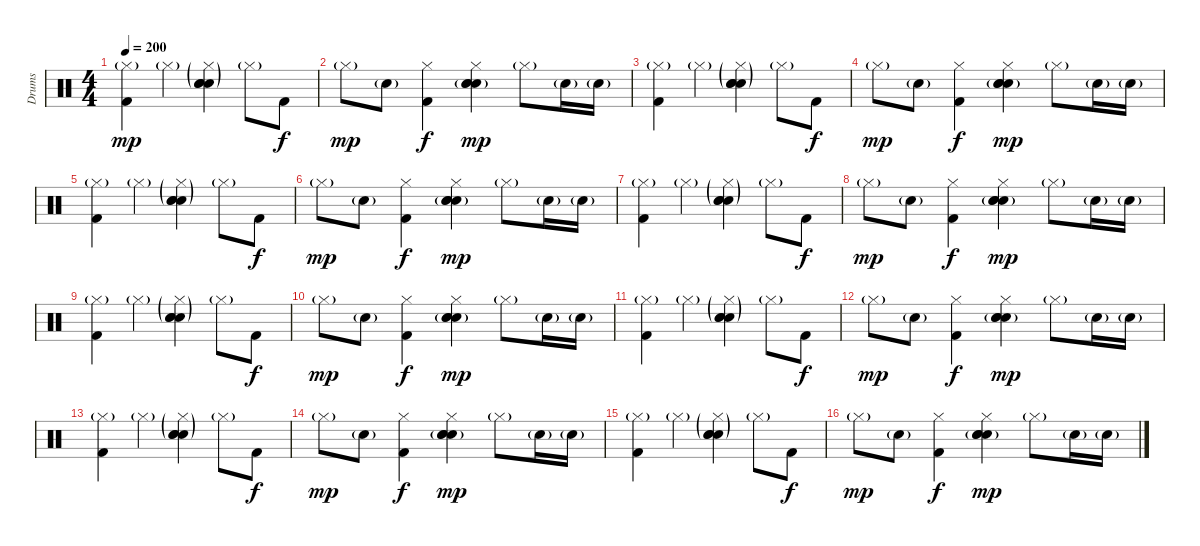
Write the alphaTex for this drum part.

\track ("Drums" "Drums") {instrument percussion}
\staff {score}
\articulation defaults
\ts (4 4)
\tempo 200
\clef neutral
\ks c
("Hi-Hat (closed)"{g} "Kick (hit) 2").4{dy mp} "Hi-Hat (closed)"{g}.4 ("Hi-Hat (closed)"{g} "Snare (hit) 2"{g} "Hand Clap (hit)"{g} "Electric Snare (hit)").4 "Hi-Hat (closed)"{g}.8 "Kick (hit) 2".8{dy f} |
"Hi-Hat (closed)"{g}.8{dy mp} "Electric Snare (hit)"{g}.8 ("Hi-Hat (closed)" "Kick (hit) 2").4{dy f} ("Hi-Hat (closed)" "Snare (hit) 2"{g} "Hand Clap (hit)"{g} "Electric Snare (hit)").4{dy mp} "Hi-Hat (closed)"{g}.8 "Electric Snare (hit)"{g}.16 "Electric Snare (hit)"{g}.16 |
("Hi-Hat (closed)"{g} "Kick (hit) 2").4 "Hi-Hat (closed)"{g}.4 ("Hi-Hat (closed)"{g} "Snare (hit) 2"{g} "Hand Clap (hit)"{g} "Electric Snare (hit)").4 "Hi-Hat (closed)"{g}.8 "Kick (hit) 2".8{dy f} |
"Hi-Hat (closed)"{g}.8{dy mp} "Electric Snare (hit)"{g}.8 ("Hi-Hat (closed)" "Kick (hit) 2").4{dy f} ("Hi-Hat (closed)" "Snare (hit) 2"{g} "Hand Clap (hit)"{g} "Electric Snare (hit)").4{dy mp} "Hi-Hat (closed)"{g}.8 "Electric Snare (hit)"{g}.16 "Electric Snare (hit)"{g}.16 |
("Hi-Hat (closed)"{g} "Kick (hit) 2").4 "Hi-Hat (closed)"{g}.4 ("Hi-Hat (closed)"{g} "Snare (hit) 2"{g} "Hand Clap (hit)"{g} "Electric Snare (hit)").4 "Hi-Hat (closed)"{g}.8 "Kick (hit) 2".8{dy f} |
"Hi-Hat (closed)"{g}.8{dy mp} "Electric Snare (hit)"{g}.8 ("Hi-Hat (closed)" "Kick (hit) 2").4{dy f} ("Hi-Hat (closed)" "Snare (hit) 2"{g} "Hand Clap (hit)"{g} "Electric Snare (hit)").4{dy mp} "Hi-Hat (closed)"{g}.8 "Electric Snare (hit)"{g}.16 "Electric Snare (hit)"{g}.16 |
("Hi-Hat (closed)"{g} "Kick (hit) 2").4 "Hi-Hat (closed)"{g}.4 ("Hi-Hat (closed)"{g} "Snare (hit) 2"{g} "Hand Clap (hit)"{g} "Electric Snare (hit)").4 "Hi-Hat (closed)"{g}.8 "Kick (hit) 2".8{dy f} |
"Hi-Hat (closed)"{g}.8{dy mp} "Electric Snare (hit)"{g}.8 ("Hi-Hat (closed)" "Kick (hit) 2").4{dy f} ("Hi-Hat (closed)" "Snare (hit) 2"{g} "Hand Clap (hit)"{g} "Electric Snare (hit)").4{dy mp} "Hi-Hat (closed)"{g}.8 "Electric Snare (hit)"{g}.16 "Electric Snare (hit)"{g}.16 |
("Hi-Hat (closed)"{g} "Kick (hit) 2").4 "Hi-Hat (closed)"{g}.4 ("Hi-Hat (closed)"{g} "Snare (hit) 2"{g} "Hand Clap (hit)"{g} "Electric Snare (hit)").4 "Hi-Hat (closed)"{g}.8 "Kick (hit) 2".8{dy f} |
"Hi-Hat (closed)"{g}.8{dy mp} "Electric Snare (hit)"{g}.8 ("Hi-Hat (closed)" "Kick (hit) 2").4{dy f} ("Hi-Hat (closed)" "Snare (hit) 2"{g} "Hand Clap (hit)"{g} "Electric Snare (hit)").4{dy mp} "Hi-Hat (closed)"{g}.8 "Electric Snare (hit)"{g}.16 "Electric Snare (hit)"{g}.16 |
("Hi-Hat (closed)"{g} "Kick (hit) 2").4 "Hi-Hat (closed)"{g}.4 ("Hi-Hat (closed)"{g} "Snare (hit) 2"{g} "Hand Clap (hit)"{g} "Electric Snare (hit)").4 "Hi-Hat (closed)"{g}.8 "Kick (hit) 2".8{dy f} |
"Hi-Hat (closed)"{g}.8{dy mp} "Electric Snare (hit)"{g}.8 ("Hi-Hat (closed)" "Kick (hit) 2").4{dy f} ("Hi-Hat (closed)" "Snare (hit) 2"{g} "Hand Clap (hit)"{g} "Electric Snare (hit)").4{dy mp} "Hi-Hat (closed)"{g}.8 "Electric Snare (hit)"{g}.16 "Electric Snare (hit)"{g}.16 |
("Hi-Hat (closed)"{g} "Kick (hit) 2").4 "Hi-Hat (closed)"{g}.4 ("Hi-Hat (closed)"{g} "Snare (hit) 2"{g} "Hand Clap (hit)"{g} "Electric Snare (hit)").4 "Hi-Hat (closed)"{g}.8 "Kick (hit) 2".8{dy f} |
"Hi-Hat (closed)"{g}.8{dy mp} "Electric Snare (hit)"{g}.8 ("Hi-Hat (closed)" "Kick (hit) 2").4{dy f} ("Hi-Hat (closed)" "Snare (hit) 2"{g} "Hand Clap (hit)"{g} "Electric Snare (hit)").4{dy mp} "Hi-Hat (closed)"{g}.8 "Electric Snare (hit)"{g}.16 "Electric Snare (hit)"{g}.16 |
("Hi-Hat (closed)"{g} "Kick (hit) 2").4 "Hi-Hat (closed)"{g}.4 ("Hi-Hat (closed)"{g} "Snare (hit) 2"{g} "Hand Clap (hit)"{g} "Electric Snare (hit)").4 "Hi-Hat (closed)"{g}.8 "Kick (hit) 2".8{dy f} |
"Hi-Hat (closed)"{g}.8{dy mp} "Electric Snare (hit)"{g}.8 ("Hi-Hat (closed)" "Kick (hit) 2").4{dy f} ("Hi-Hat (closed)" "Snare (hit) 2"{g} "Hand Clap (hit)"{g} "Electric Snare (hit)").4{dy mp} "Hi-Hat (closed)"{g}.8 "Electric Snare (hit)"{g}.16 "Electric Snare (hit)"{g}.16
